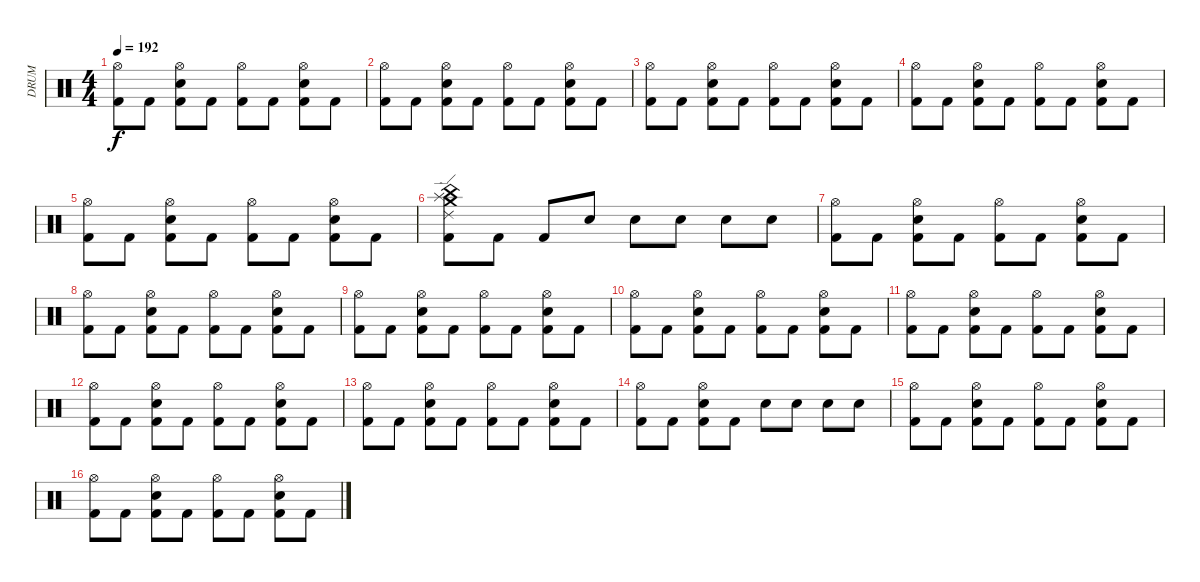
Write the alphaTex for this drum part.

\track ("     DRUM" "     DRUM") {instrument percussion}
\staff {score}
\articulation defaults
\ts (4 4)
\tempo 192
\clef neutral
\ks c
("Hi-Hat (open)" "Kick (hit) 2").8{dy f} "Kick (hit) 2".8 ("Electric Snare (hit)" "Hi-Hat (open)" "Kick (hit) 2").8 "Kick (hit) 2".8 ("Hi-Hat (open)" "Kick (hit) 2").8 "Kick (hit) 2".8 ("Electric Snare (hit)" "Hi-Hat (open)" "Kick (hit) 2").8 "Kick (hit) 2".8 |
("Hi-Hat (open)" "Kick (hit) 2").8 "Kick (hit) 2".8 ("Electric Snare (hit)" "Hi-Hat (open)" "Kick (hit) 2").8 "Kick (hit) 2".8 ("Hi-Hat (open)" "Kick (hit) 2").8 "Kick (hit) 2".8 ("Electric Snare (hit)" "Hi-Hat (open)" "Kick (hit) 2").8 "Kick (hit) 2".8 |
("Hi-Hat (open)" "Kick (hit) 2").8 "Kick (hit) 2".8 ("Electric Snare (hit)" "Hi-Hat (open)" "Kick (hit) 2").8 "Kick (hit) 2".8 ("Hi-Hat (open)" "Kick (hit) 2").8 "Kick (hit) 2".8 ("Electric Snare (hit)" "Hi-Hat (open)" "Kick (hit) 2").8 "Kick (hit) 2".8 |
("Hi-Hat (open)" "Kick (hit) 2").8 "Kick (hit) 2".8 ("Electric Snare (hit)" "Hi-Hat (open)" "Kick (hit) 2").8 "Kick (hit) 2".8 ("Hi-Hat (open)" "Kick (hit) 2").8 "Kick (hit) 2".8 ("Electric Snare (hit)" "Hi-Hat (open)" "Kick (hit) 2").8 "Kick (hit) 2".8 |
("Hi-Hat (open)" "Kick (hit) 2").8 "Kick (hit) 2".8 ("Electric Snare (hit)" "Hi-Hat (open)" "Kick (hit) 2").8 "Kick (hit) 2".8 ("Hi-Hat (open)" "Kick (hit) 2").8 "Kick (hit) 2".8 ("Electric Snare (hit)" "Hi-Hat (open)" "Kick (hit) 2").8 "Kick (hit) 2".8 |
("Ride (edge) 2" "Crash medium (hit)" "Splash (hit)" "China (hit)" "Kick (hit) 2").8 "Kick (hit) 2".8 "Kick (hit) 2".8 "Electric Snare (hit)".8{volume 6} "Electric Snare (hit)".8{volume 7} "Electric Snare (hit)".8{volume 8} "Electric Snare (hit)".8{volume 9} "Electric Snare (hit)".8{volume 10} |
("Hi-Hat (open)" "Kick (hit) 2").8{volume 11} "Kick (hit) 2".8 ("Electric Snare (hit)" "Hi-Hat (open)" "Kick (hit) 2").8 "Kick (hit) 2".8 ("Hi-Hat (open)" "Kick (hit) 2").8 "Kick (hit) 2".8 ("Electric Snare (hit)" "Hi-Hat (open)" "Kick (hit) 2").8 "Kick (hit) 2".8 |
("Hi-Hat (open)" "Kick (hit) 2").8 "Kick (hit) 2".8 ("Electric Snare (hit)" "Hi-Hat (open)" "Kick (hit) 2").8 "Kick (hit) 2".8 ("Hi-Hat (open)" "Kick (hit) 2").8 "Kick (hit) 2".8 ("Electric Snare (hit)" "Hi-Hat (open)" "Kick (hit) 2").8 "Kick (hit) 2".8 |
("Hi-Hat (open)" "Kick (hit) 2").8 "Kick (hit) 2".8 ("Electric Snare (hit)" "Hi-Hat (open)" "Kick (hit) 2").8 "Kick (hit) 2".8 ("Hi-Hat (open)" "Kick (hit) 2").8 "Kick (hit) 2".8 ("Electric Snare (hit)" "Hi-Hat (open)" "Kick (hit) 2").8 "Kick (hit) 2".8 |
("Hi-Hat (open)" "Kick (hit) 2").8 "Kick (hit) 2".8 ("Electric Snare (hit)" "Hi-Hat (open)" "Kick (hit) 2").8 "Kick (hit) 2".8 ("Hi-Hat (open)" "Kick (hit) 2").8 "Kick (hit) 2".8 ("Electric Snare (hit)" "Hi-Hat (open)" "Kick (hit) 2").8 "Kick (hit) 2".8 |
("Hi-Hat (open)" "Kick (hit) 2").8 "Kick (hit) 2".8 ("Electric Snare (hit)" "Hi-Hat (open)" "Kick (hit) 2").8 "Kick (hit) 2".8 ("Hi-Hat (open)" "Kick (hit) 2").8 "Kick (hit) 2".8 ("Electric Snare (hit)" "Hi-Hat (open)" "Kick (hit) 2").8 "Kick (hit) 2".8 |
("Hi-Hat (open)" "Kick (hit) 2").8 "Kick (hit) 2".8 ("Electric Snare (hit)" "Hi-Hat (open)" "Kick (hit) 2").8 "Kick (hit) 2".8 ("Hi-Hat (open)" "Kick (hit) 2").8 "Kick (hit) 2".8 ("Electric Snare (hit)" "Hi-Hat (open)" "Kick (hit) 2").8 "Kick (hit) 2".8 |
("Hi-Hat (open)" "Kick (hit) 2").8 "Kick (hit) 2".8 ("Electric Snare (hit)" "Hi-Hat (open)" "Kick (hit) 2").8 "Kick (hit) 2".8 ("Hi-Hat (open)" "Kick (hit) 2").8 "Kick (hit) 2".8 ("Electric Snare (hit)" "Hi-Hat (open)" "Kick (hit) 2").8 "Kick (hit) 2".8 |
("Hi-Hat (open)" "Kick (hit) 2").8 "Kick (hit) 2".8 ("Electric Snare (hit)" "Hi-Hat (open)" "Kick (hit) 2").8 "Kick (hit) 2".8 "Snare (hit) 2".8 "Snare (hit) 2".8 "Snare (hit) 2".8 "Snare (hit) 2".8 |
("Hi-Hat (open)" "Kick (hit) 2").8 "Kick (hit) 2".8 ("Electric Snare (hit)" "Hi-Hat (open)" "Kick (hit) 2").8 "Kick (hit) 2".8 ("Hi-Hat (open)" "Kick (hit) 2").8 "Kick (hit) 2".8 ("Electric Snare (hit)" "Hi-Hat (open)" "Kick (hit) 2").8 "Kick (hit) 2".8 |
("Hi-Hat (open)" "Kick (hit) 2").8 "Kick (hit) 2".8 ("Electric Snare (hit)" "Hi-Hat (open)" "Kick (hit) 2").8 "Kick (hit) 2".8 ("Hi-Hat (open)" "Kick (hit) 2").8 "Kick (hit) 2".8 ("Electric Snare (hit)" "Hi-Hat (open)" "Kick (hit) 2").8 "Kick (hit) 2".8
